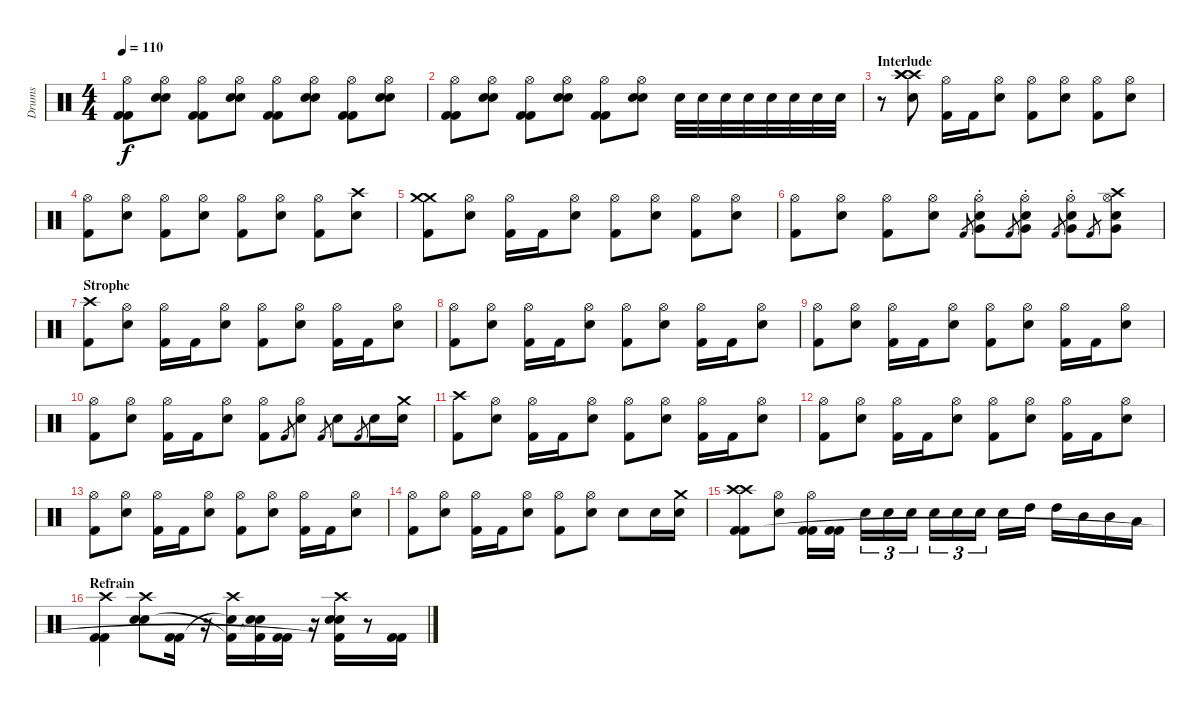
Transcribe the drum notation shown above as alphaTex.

\track ("Drums" "Drums") {instrument percussion}
\staff {score}
\articulation defaults
\ts (4 4)
\tempo 110
\clef neutral
\ks c
("Hi-Hat (open)" "Kick (hit) 2" "Kick (hit) 2").8{dy f} ("Hi-Hat (open)" "Snare (hit) 2" "Snare (hit) 2").8 ("Hi-Hat (open)" "Kick (hit) 2" "Kick (hit) 2").8 ("Hi-Hat (open)" "Snare (hit) 2" "Snare (hit) 2").8 ("Hi-Hat (open)" "Kick (hit) 2" "Kick (hit) 2").8 ("Hi-Hat (open)" "Snare (hit) 2" "Snare (hit) 2").8 ("Hi-Hat (open)" "Kick (hit) 2" "Kick (hit) 2").8 ("Hi-Hat (open)" "Snare (hit) 2" "Snare (hit) 2").8 |
("Hi-Hat (open)" "Kick (hit) 2" "Kick (hit) 2").8 ("Hi-Hat (open)" "Snare (hit) 2" "Snare (hit) 2").8 ("Hi-Hat (open)" "Kick (hit) 2" "Kick (hit) 2").8 ("Hi-Hat (open)" "Snare (hit) 2" "Snare (hit) 2").8 ("Hi-Hat (open)" "Kick (hit) 2" "Kick (hit) 2").8 ("Hi-Hat (open)" "Snare (hit) 2" "Snare (hit) 2").8 "Snare (hit) 2".32 "Snare (hit) 2".32 "Snare (hit) 2".32 "Snare (hit) 2".32 "Snare (hit) 2".32 "Snare (hit) 2".32 "Snare (hit) 2".32 "Snare (hit) 2".32 |
\section ("" "Interlude")
r.8 ("Crash high (hit)" "Crash high (hit)" "Crash high (hit)" "Snare (hit) 2").8 ("Hi-Hat (open)" "Kick (hit) 2").16 "Kick (hit) 2".16 ("Hi-Hat (open)" "Snare (hit) 2").8 ("Hi-Hat (open)" "Kick (hit) 2").8 ("Hi-Hat (open)" "Snare (hit) 2").8 ("Hi-Hat (open)" "Kick (hit) 2").8 ("Hi-Hat (open)" "Snare (hit) 2").8 |
("Hi-Hat (open)" "Kick (hit) 2").8 ("Hi-Hat (open)" "Snare (hit) 2").8 ("Hi-Hat (open)" "Kick (hit) 2").8 ("Hi-Hat (open)" "Snare (hit) 2").8 ("Hi-Hat (open)" "Kick (hit) 2").8 ("Hi-Hat (open)" "Snare (hit) 2").8 ("Hi-Hat (open)" "Kick (hit) 2").8 ("Crash high (hit)" "Snare (hit) 2").8 |
("Crash medium (hit)" "Crash medium (hit)" "Kick (hit) 2").8 ("Hi-Hat (open)" "Snare (hit) 2").8 ("Hi-Hat (open)" "Kick (hit) 2").16 "Kick (hit) 2".16 ("Hi-Hat (open)" "Snare (hit) 2").8 ("Hi-Hat (open)" "Kick (hit) 2").8 ("Hi-Hat (open)" "Snare (hit) 2").8 ("Hi-Hat (open)" "Kick (hit) 2").8 ("Hi-Hat (open)" "Snare (hit) 2").8 |
("Hi-Hat (open)" "Kick (hit) 2").8 ("Hi-Hat (open)" "Snare (hit) 2").8 ("Hi-Hat (open)" "Kick (hit) 2").8 ("Hi-Hat (open)" "Snare (hit) 2").8 "Kick (hit) 2".8{gr} ("Hi-Hat (open)"{st} "Snare (hit) 2" "Very Low Tom (hit)").8 "Kick (hit) 2".8{gr} ("Hi-Hat (open)"{st} "Snare (hit) 2" "Very Low Tom (hit)").8 "Kick (hit) 2".8{gr} ("Hi-Hat (open)"{st} "Snare (hit) 2" "Very Low Tom (hit)").8 "Kick (hit) 2".8{gr} ("Crash high (hit)" "Hi-Hat (open)" "Snare (hit) 2" "Very Low Tom (hit)").8 |
\section ("" "Strophe")
("Crash high (hit)" "Kick (hit) 2").8 ("Hi-Hat (open)" "Snare (hit) 2").8 ("Hi-Hat (open)" "Kick (hit) 2").16 "Kick (hit) 2".16 ("Hi-Hat (open)" "Snare (hit) 2").8 ("Hi-Hat (open)" "Kick (hit) 2").8 ("Hi-Hat (open)" "Snare (hit) 2").8 ("Hi-Hat (open)" "Kick (hit) 2").16 "Kick (hit) 2".16 ("Hi-Hat (open)" "Snare (hit) 2").8 |
("Hi-Hat (open)" "Kick (hit) 2").8 ("Hi-Hat (open)" "Snare (hit) 2").8 ("Hi-Hat (open)" "Kick (hit) 2").16 "Kick (hit) 2".16 ("Hi-Hat (open)" "Snare (hit) 2").8 ("Hi-Hat (open)" "Kick (hit) 2").8 ("Hi-Hat (open)" "Snare (hit) 2").8 ("Hi-Hat (open)" "Kick (hit) 2").16 "Kick (hit) 2".16 ("Hi-Hat (open)" "Snare (hit) 2").8 |
("Hi-Hat (open)" "Kick (hit) 2").8 ("Hi-Hat (open)" "Snare (hit) 2").8 ("Hi-Hat (open)" "Kick (hit) 2").16 "Kick (hit) 2".16 ("Hi-Hat (open)" "Snare (hit) 2").8 ("Hi-Hat (open)" "Kick (hit) 2").8 ("Hi-Hat (open)" "Snare (hit) 2").8 ("Hi-Hat (open)" "Kick (hit) 2").16 "Kick (hit) 2".16 ("Hi-Hat (open)" "Snare (hit) 2").8 |
("Hi-Hat (open)" "Kick (hit) 2").8 ("Hi-Hat (open)" "Snare (hit) 2").8 ("Hi-Hat (open)" "Kick (hit) 2").16 "Kick (hit) 2".16 ("Hi-Hat (open)" "Snare (hit) 2").8 ("Hi-Hat (open)" "Kick (hit) 2").8 "Kick (hit) 2".8{gr} ("Hi-Hat (open)" "Snare (hit) 2").8 "Kick (hit) 2".8{gr} "Snare (hit) 2".8 "Kick (hit) 2".8{gr} "Snare (hit) 2".16 ("Crash medium (hit)" "Snare (hit) 2").16 |
("Crash high (hit)" "Kick (hit) 2").8 ("Hi-Hat (open)" "Snare (hit) 2").8 ("Hi-Hat (open)" "Kick (hit) 2").16 "Kick (hit) 2".16 ("Hi-Hat (open)" "Snare (hit) 2").8 ("Hi-Hat (open)" "Kick (hit) 2").8 ("Hi-Hat (open)" "Snare (hit) 2").8 ("Hi-Hat (open)" "Kick (hit) 2").16 "Kick (hit) 2".16 ("Hi-Hat (open)" "Snare (hit) 2").8 |
("Hi-Hat (open)" "Kick (hit) 2").8 ("Hi-Hat (open)" "Snare (hit) 2").8 ("Hi-Hat (open)" "Kick (hit) 2").16 "Kick (hit) 2".16 ("Hi-Hat (open)" "Snare (hit) 2").8 ("Hi-Hat (open)" "Kick (hit) 2").8 ("Hi-Hat (open)" "Snare (hit) 2").8 ("Hi-Hat (open)" "Kick (hit) 2").16 "Kick (hit) 2".16 ("Hi-Hat (open)" "Snare (hit) 2").8 |
("Hi-Hat (open)" "Kick (hit) 2").8 ("Hi-Hat (open)" "Snare (hit) 2").8 ("Hi-Hat (open)" "Kick (hit) 2").16 "Kick (hit) 2".16 ("Hi-Hat (open)" "Snare (hit) 2").8 ("Hi-Hat (open)" "Kick (hit) 2").8 ("Hi-Hat (open)" "Snare (hit) 2").8 ("Hi-Hat (open)" "Kick (hit) 2").16 "Kick (hit) 2".16 ("Hi-Hat (open)" "Snare (hit) 2").8 |
("Hi-Hat (open)" "Kick (hit) 2").8 ("Hi-Hat (open)" "Snare (hit) 2").8 ("Hi-Hat (open)" "Kick (hit) 2").16 "Kick (hit) 2".16 ("Hi-Hat (open)" "Snare (hit) 2").8 ("Hi-Hat (open)" "Kick (hit) 2").8 ("Hi-Hat (open)" "Snare (hit) 2").8 "Snare (hit) 2".8 "Snare (hit) 2".16 ("Crash medium (hit)" "Snare (hit) 2").16 |
("Crash high (hit)" "Crash high (hit)" "Kick (hit) 2" "Kick (hit) 2").8 ("Hi-Hat (open)" "Snare (hit) 2").8 ("Hi-Hat (open)" "Kick (hit) 2" "Kick (hit) 2").16 ("Kick (hit) 2" "Kick (hit) 2").16 "Snare (hit) 2".16{tu (3 2)} "Snare (hit) 2".16{tu (3 2)} "Snare (hit) 2".16{tu (3 2)} "Snare (hit) 2".16{tu (3 2)} "Snare (hit) 2".16{tu (3 2)} "Electric Snare (hit)".16{tu (3 2)} "Electric Snare (hit)".16 "High Tom (hit)".16 "High Tom (hit)".16 "Mid Tom (hit)".16 "Mid Tom (hit)".16 "Low Tom (hit)".16 |
\section ("" "Refrain")
("Crash high (hit)" "Kick (hit) 2" "Kick (hit) 2").4 ("Crash high (hit)" "Snare (hit) 2" "Snare (hit) 2").8 ("Kick (hit) 2" "Kick (hit) 2").16 r.16 ("Crash high (hit)" "Snare (hit) 2"{t} "Kick (hit) 2"{t}).16 ("Snare (hit) 2" "Snare (hit) 2" "Kick (hit) 2"{t}).16 ("Kick (hit) 2" "Kick (hit) 2").16 r.16 ("Crash high (hit)" "Snare (hit) 2" "Snare (hit) 2" "Kick (hit) 2"{t}).16 r.8 ("Kick (hit) 2" "Kick (hit) 2").16
